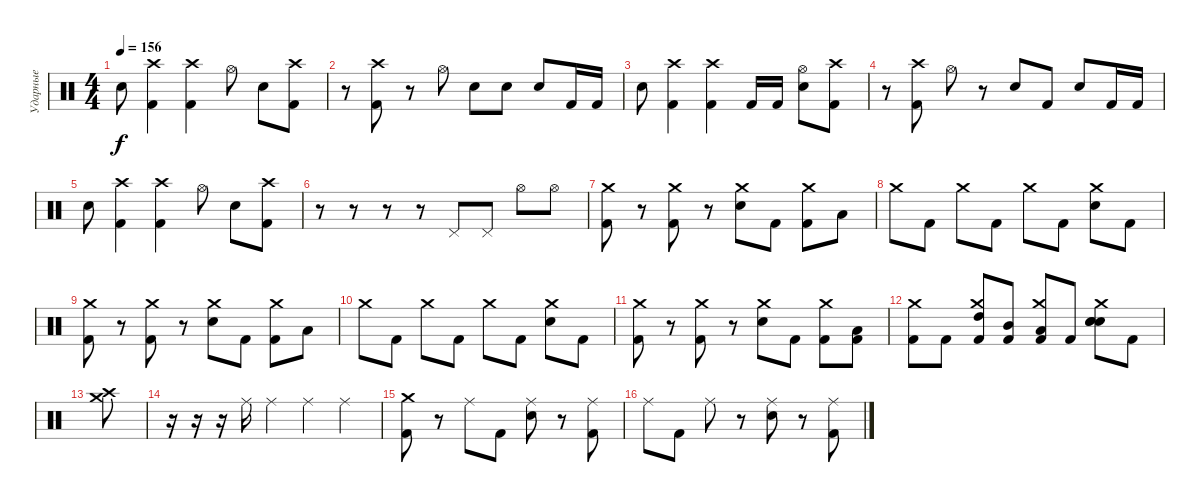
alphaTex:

\track ("Ударные" "Ударные") {instrument percussion}
\staff {score}
\articulation defaults
\ts (4 4)
\tempo 156
\clef neutral
\ks c "Electric Snare (hit)".8{dy f}
("Crash high (hit)" "Kick (hit) 2").4 ("Crash high (hit)" "Kick (hit) 2").4 "Hi-Hat (open)".8 "Electric Snare (hit)".8 ("Crash high (hit)" "Kick (hit) 2").8 |
r.8 ("Crash high (hit)" "Kick (hit) 2").8 r.8 "Hi-Hat (open)".8 "Electric Snare (hit)".8 "Electric Snare (hit)".8 "Electric Snare (hit)".8 "Kick (hit) 2".16 "Kick (hit) 2".16 |
"Electric Snare (hit)".8 ("Crash high (hit)" "Kick (hit) 2").4 ("Crash high (hit)" "Kick (hit) 2").4 "Kick (hit) 2".16 "Kick (hit) 2".16 ("Hi-Hat (open)" "Electric Snare (hit)").8 ("Crash high (hit)" "Kick (hit) 2").8 |
r.8 ("Crash high (hit)" "Kick (hit) 2").8 "Hi-Hat (open)".8 r.8 "Electric Snare (hit)".8 "Kick (hit) 2".8 "Electric Snare (hit)".8 "Kick (hit) 2".16 "Kick (hit) 2".16 |
"Electric Snare (hit)".8 ("Crash high (hit)" "Kick (hit) 2").4 ("Crash high (hit)" "Kick (hit) 2").4 "Hi-Hat (open)".8 "Electric Snare (hit)".8 ("Crash high (hit)" "Kick (hit) 2").8 |
r.8 r.8 r.8 r.8 "Pedal Hi-Hat (hit)".8 "Pedal Hi-Hat (hit)".8 "Hi-Hat (open)".8 "Hi-Hat (open)".8 |
("Crash medium (hit)" "Kick (hit) 2").8 r.8 ("Crash medium (hit)" "Kick (hit) 2").8 r.8 ("Crash medium (hit)" "Electric Snare (hit)").8 "Kick (hit) 2".8 ("Crash medium (hit)" "Kick (hit) 2").8 "Low Tom (hit)".8 |
"Crash medium (hit)".8 "Kick (hit) 2".8 "Crash medium (hit)".8 "Kick (hit) 2".8 "Crash medium (hit)".8 "Kick (hit) 2".8 ("Crash medium (hit)" "Electric Snare (hit)").8 "Kick (hit) 2".8 |
("Crash medium (hit)" "Kick (hit) 2").8 r.8 ("Crash medium (hit)" "Kick (hit) 2").8 r.8 ("Crash medium (hit)" "Electric Snare (hit)").8 "Kick (hit) 2".8 ("Crash medium (hit)" "Kick (hit) 2").8 "Low Tom (hit)".8 |
"Crash medium (hit)".8 "Kick (hit) 2".8 "Crash medium (hit)".8 "Kick (hit) 2".8 "Crash medium (hit)".8 "Kick (hit) 2".8 ("Crash medium (hit)" "Electric Snare (hit)").8 "Kick (hit) 2".8 |
("Crash medium (hit)" "Kick (hit) 2").8 r.8 ("Crash medium (hit)" "Kick (hit) 2").8 r.8 ("Crash medium (hit)" "Electric Snare (hit)").8 "Kick (hit) 2".8 ("Crash medium (hit)" "Kick (hit) 2").8 ("Kick (hit) 2" "Low Tom (hit)").8 |
("Crash medium (hit)" "Kick (hit) 2").8 "Kick (hit) 2".8 ("Crash medium (hit)" "Kick (hit) 2" "High Tom (hit)").8 ("Kick (hit) 2" "Mid Tom (hit)").8 ("Crash medium (hit)" "Kick (hit) 2" "Low Tom (hit)").8 "Kick (hit) 2".8 ("Crash medium (hit)" "Electric Snare (hit)" "Electric Snare (hit)" "Electric Snare (hit)").8 "Kick (hit) 2".8 |
("Crash high (hit)" "Crash medium (hit)").8 |
r.16 r.16 r.16 "Ride (middle)".16 "Ride (middle)".4 "Ride (middle)".4 "Ride (middle)".4 |
("Crash medium (hit)" "Kick (hit) 2").8 r.8 "Ride (middle)".8 "Kick (hit) 2".8 ("Ride (middle)" "Electric Snare (hit)").8 r.8 ("Ride (middle)" "Kick (hit) 2").8 |
"Ride (middle)".8 "Kick (hit) 2".8 "Ride (middle)".8 r.8 ("Ride (middle)" "Electric Snare (hit)").8 r.8 ("Ride (middle)" "Kick (hit) 2").8
